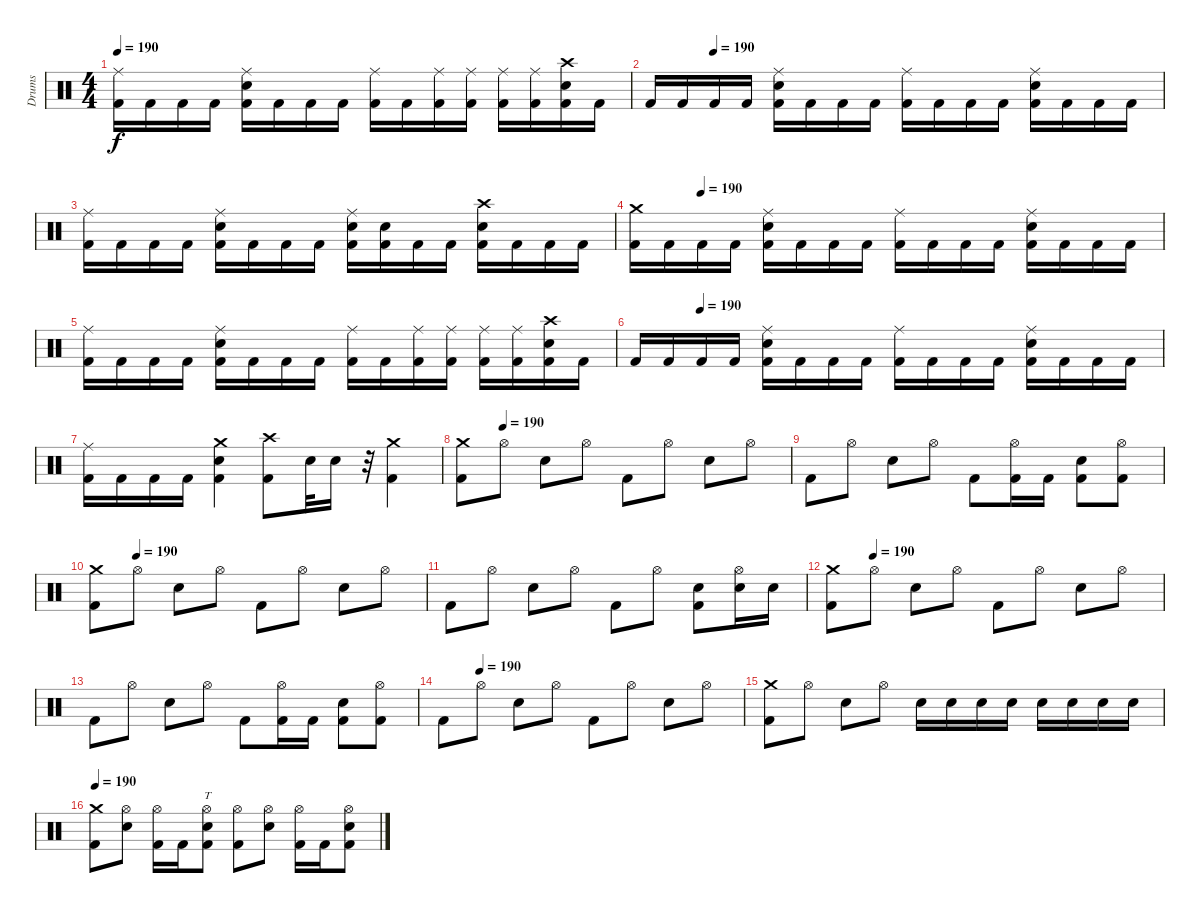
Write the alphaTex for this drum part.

\track ("Drums" "Drums") {instrument percussion}
\staff {score}
\articulation defaults
\ts (4 4)
\tempo 190
\clef neutral
\ks c
("Ride (middle)" "Kick (hit) 2").16{dy f} "Kick (hit) 2".16 "Kick (hit) 2".16 "Kick (hit) 2".16 ("Ride (middle)" "Electric Snare (hit)" "Kick (hit) 2").16 "Kick (hit) 2".16 "Kick (hit) 2".16 "Kick (hit) 2".16 ("Ride (middle)" "Kick (hit) 2").16 "Kick (hit) 2".16 ("Ride (middle)" "Kick (hit) 2").16 ("Ride (middle)" "Kick (hit) 2").16 ("Ride (middle)" "Kick (hit) 2").16 ("Ride (middle)" "Kick (hit) 2").16 ("Crash high (hit)" "Electric Snare (hit)" "Kick (hit) 2").16 "Kick (hit) 2".16 |
\tempo (190 0.125)
"Kick (hit) 2".16 "Kick (hit) 2".16 "Kick (hit) 2".16 "Kick (hit) 2".16 ("Ride (middle)" "Electric Snare (hit)" "Kick (hit) 2").16 "Kick (hit) 2".16 "Kick (hit) 2".16 "Kick (hit) 2".16 ("Ride (middle)" "Kick (hit) 2").16 "Kick (hit) 2".16 "Kick (hit) 2".16 "Kick (hit) 2".16 ("Ride (middle)" "Electric Snare (hit)" "Kick (hit) 2").16 "Kick (hit) 2".16 "Kick (hit) 2".16 "Kick (hit) 2".16 |
("Ride (middle)" "Kick (hit) 2").16 "Kick (hit) 2".16 "Kick (hit) 2".16 "Kick (hit) 2".16 ("Ride (middle)" "Electric Snare (hit)" "Kick (hit) 2").16 "Kick (hit) 2".16 "Kick (hit) 2".16 "Kick (hit) 2".16 ("Ride (middle)" "Electric Snare (hit)" "Kick (hit) 2").16 ("Electric Snare (hit)" "Kick (hit) 2").16 "Kick (hit) 2".16 "Kick (hit) 2".16 ("Crash high (hit)" "Electric Snare (hit)" "Kick (hit) 2").16 "Kick (hit) 2".16 "Kick (hit) 2".16 "Kick (hit) 2".16 |
\tempo (190 0.125)
("Crash medium (hit)" "Kick (hit) 2").16 "Kick (hit) 2".16 "Kick (hit) 2".16 "Kick (hit) 2".16 ("Ride (middle)" "Electric Snare (hit)" "Kick (hit) 2").16 "Kick (hit) 2".16 "Kick (hit) 2".16 "Kick (hit) 2".16 ("Ride (middle)" "Kick (hit) 2").16 "Kick (hit) 2".16 "Kick (hit) 2".16 "Kick (hit) 2".16 ("Ride (middle)" "Electric Snare (hit)" "Kick (hit) 2").16 "Kick (hit) 2".16 "Kick (hit) 2".16 "Kick (hit) 2".16 |
("Ride (middle)" "Kick (hit) 2").16 "Kick (hit) 2".16 "Kick (hit) 2".16 "Kick (hit) 2".16 ("Ride (middle)" "Electric Snare (hit)" "Kick (hit) 2").16 "Kick (hit) 2".16 "Kick (hit) 2".16 "Kick (hit) 2".16 ("Ride (middle)" "Kick (hit) 2").16 "Kick (hit) 2".16 ("Ride (middle)" "Kick (hit) 2").16 ("Ride (middle)" "Kick (hit) 2").16 ("Ride (middle)" "Kick (hit) 2").16 ("Ride (middle)" "Kick (hit) 2").16 ("Crash high (hit)" "Electric Snare (hit)" "Kick (hit) 2").16 "Kick (hit) 2".16 |
\tempo (190 0.125)
"Kick (hit) 2".16 "Kick (hit) 2".16 "Kick (hit) 2".16 "Kick (hit) 2".16 ("Ride (middle)" "Electric Snare (hit)" "Kick (hit) 2").16 "Kick (hit) 2".16 "Kick (hit) 2".16 "Kick (hit) 2".16 ("Ride (middle)" "Kick (hit) 2").16 "Kick (hit) 2".16 "Kick (hit) 2".16 "Kick (hit) 2".16 ("Ride (middle)" "Electric Snare (hit)" "Kick (hit) 2").16 "Kick (hit) 2".16 "Kick (hit) 2".16 "Kick (hit) 2".16 |
("Ride (middle)" "Kick (hit) 2").16 "Kick (hit) 2".16 "Kick (hit) 2".16 "Kick (hit) 2".16 ("Crash medium (hit)" "Electric Snare (hit)" "Kick (hit) 2").4 ("Crash high (hit)" "Kick (hit) 2").8 "Electric Snare (hit)".32 "Electric Snare (hit)".16 r.32 ("Crash medium (hit)" "Kick (hit) 2").4 |
\tempo (190 0.125)
("Crash medium (hit)" "Kick (hit) 2").8 "Hi-Hat (open)".8 "Electric Snare (hit)".8 "Hi-Hat (open)".8 "Kick (hit) 2".8 "Hi-Hat (open)".8 "Electric Snare (hit)".8 "Hi-Hat (open)".8 |
"Kick (hit) 2".8 "Hi-Hat (open)".8 "Electric Snare (hit)".8 "Hi-Hat (open)".8 "Kick (hit) 2".8 ("Hi-Hat (open)" "Kick (hit) 2").16 "Kick (hit) 2".16 ("Electric Snare (hit)" "Kick (hit) 2").8 ("Hi-Hat (open)" "Kick (hit) 2").8 |
\tempo (190 0.125)
("Crash medium (hit)" "Kick (hit) 2").8 "Hi-Hat (open)".8 "Electric Snare (hit)".8 "Hi-Hat (open)".8 "Kick (hit) 2".8 "Hi-Hat (open)".8 "Electric Snare (hit)".8 "Hi-Hat (open)".8 |
"Kick (hit) 2".8 "Hi-Hat (open)".8 "Electric Snare (hit)".8 "Hi-Hat (open)".8 "Kick (hit) 2".8 "Hi-Hat (open)".8 ("Electric Snare (hit)" "Kick (hit) 2").8 ("Hi-Hat (open)" "Electric Snare (hit)").16 "Electric Snare (hit)".16 |
\tempo (190 0.125)
("Crash medium (hit)" "Kick (hit) 2").8 "Hi-Hat (open)".8 "Electric Snare (hit)".8 "Hi-Hat (open)".8 "Kick (hit) 2".8 "Hi-Hat (open)".8 "Electric Snare (hit)".8 "Hi-Hat (open)".8 |
"Kick (hit) 2".8 "Hi-Hat (open)".8 "Electric Snare (hit)".8 "Hi-Hat (open)".8 "Kick (hit) 2".8 ("Hi-Hat (open)" "Kick (hit) 2").16 "Kick (hit) 2".16 ("Electric Snare (hit)" "Kick (hit) 2").8 ("Hi-Hat (open)" "Kick (hit) 2").8 |
\tempo (190 0.125)
"Kick (hit) 2".8 "Hi-Hat (open)".8 "Electric Snare (hit)".8 "Hi-Hat (open)".8 "Kick (hit) 2".8 "Hi-Hat (open)".8 "Electric Snare (hit)".8 "Hi-Hat (open)".8 |
("Crash medium (hit)" "Kick (hit) 2").8 "Hi-Hat (open)".8 "Electric Snare (hit)".8 "Hi-Hat (open)".8 "Electric Snare (hit)".16 "Electric Snare (hit)".16 "Electric Snare (hit)".16 "Electric Snare (hit)".16 "Electric Snare (hit)".16 "Electric Snare (hit)".16 "Electric Snare (hit)".16 "Electric Snare (hit)".16 |
\tempo 190
("Crash medium (hit)" "Kick (hit) 2").8 ("Hi-Hat (open)" "Electric Snare (hit)").8 ("Hi-Hat (open)" "Kick (hit) 2").16 "Kick (hit) 2".16 ("Hi-Hat (open)" "Electric Snare (hit)" "Kick (hit) 2").8{tt} ("Hi-Hat (open)" "Kick (hit) 2").8 ("Hi-Hat (open)" "Electric Snare (hit)").8 ("Hi-Hat (open)" "Kick (hit) 2").16 "Kick (hit) 2".16 ("Hi-Hat (open)" "Electric Snare (hit)" "Kick (hit) 2").8
